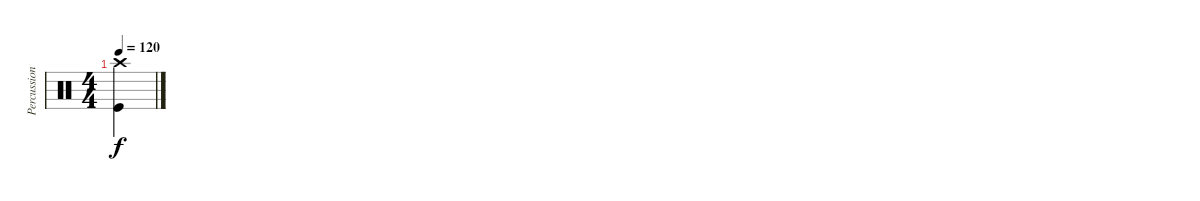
\track ("Percussion" "Percussion") {instrument percussion}
\staff {score}
\articulation defaults
\ts (4 4)
\tempo 120
\clef neutral
\ks c
("Kick (hit)" "Crash high (hit)").4{dy f}
